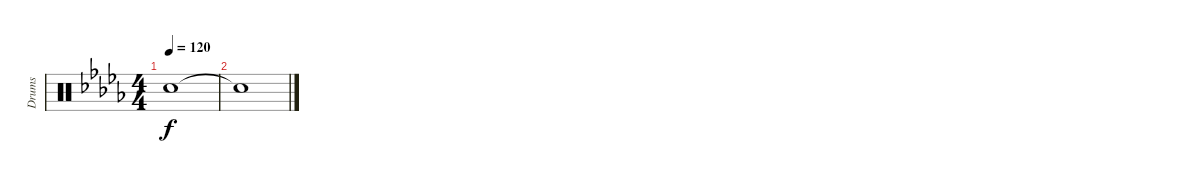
\track ("Drums" "Drums") {instrument percussion}
\staff {score}
\articulation defaults
\ts (4 4)
\tempo 120
\clef neutral
\ks db "Snare (hit)"{t}.1{dy f}
|
"Snare (hit)"{t}.1
